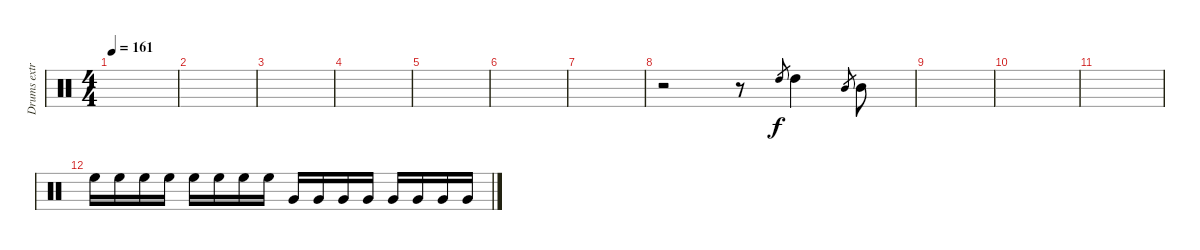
\track ("Drums extra" "Drums extr") {instrument percussion}
\staff {score}
\articulation defaults
\ts (4 4)
\tempo 161
\clef neutral
\ks c
|
|
|
|
|
|
|
r.2 r.8 "High Tom (hit)".8{gr dy f} "High Tom (hit)".4 "Mid Tom (hit)".8{gr} "Mid Tom (hit)".8 |
|
|
|
"High Floor Tom (hit)".16 "High Floor Tom (hit)".16 "High Floor Tom (hit)".16 "High Floor Tom (hit)".16 "High Floor Tom (hit)".16 "High Floor Tom (hit)".16 "High Floor Tom (hit)".16 "High Floor Tom (hit)".16 "Very Low Tom (hit)".16 "Very Low Tom (hit)".16 "Very Low Tom (hit)".16 "Very Low Tom (hit)".16 "Very Low Tom (hit)".16 "Very Low Tom (hit)".16 "Very Low Tom (hit)".16 "Very Low Tom (hit)".16
